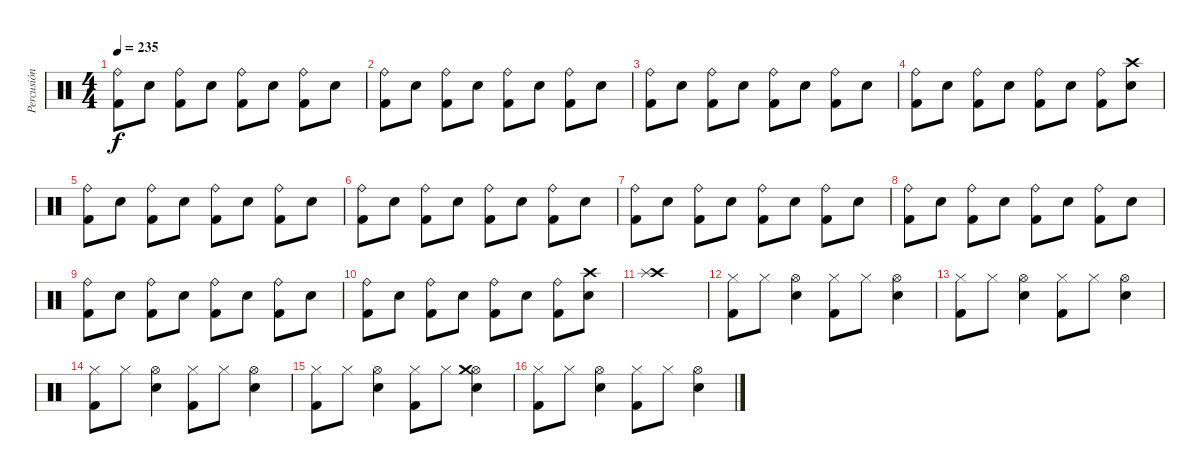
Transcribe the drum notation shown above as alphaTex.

\track ("Percusión" "Percusión") {instrument percussion}
\staff {score}
\articulation defaults
\ts (4 4)
\tempo 235
\clef neutral
\ks c
("Ride (bell)" "Kick (hit) 2").8{dy f} "Electric Snare (hit)".8 ("Ride (bell)" "Kick (hit) 2").8 "Electric Snare (hit)".8 ("Ride (bell)" "Kick (hit) 2").8 "Electric Snare (hit)".8 ("Ride (bell)" "Kick (hit) 2").8 "Electric Snare (hit)".8 |
("Ride (bell)" "Kick (hit) 2").8 "Electric Snare (hit)".8 ("Ride (bell)" "Kick (hit) 2").8 "Electric Snare (hit)".8 ("Ride (bell)" "Kick (hit) 2").8 "Electric Snare (hit)".8 ("Ride (bell)" "Kick (hit) 2").8 "Electric Snare (hit)".8 |
("Ride (bell)" "Kick (hit) 2").8 "Electric Snare (hit)".8 ("Ride (bell)" "Kick (hit) 2").8 "Electric Snare (hit)".8 ("Ride (bell)" "Kick (hit) 2").8 "Electric Snare (hit)".8 ("Ride (bell)" "Kick (hit) 2").8 "Electric Snare (hit)".8 |
("Ride (bell)" "Kick (hit) 2").8 "Electric Snare (hit)".8 ("Ride (bell)" "Kick (hit) 2").8 "Electric Snare (hit)".8 ("Ride (bell)" "Kick (hit) 2").8 "Electric Snare (hit)".8 ("Ride (bell)" "Kick (hit) 2").8 ("Electric Snare (hit)" "Crash high (hit)").8 |
("Ride (bell)" "Kick (hit) 2").8 "Electric Snare (hit)".8 ("Ride (bell)" "Kick (hit) 2").8 "Electric Snare (hit)".8 ("Ride (bell)" "Kick (hit) 2").8 "Electric Snare (hit)".8 ("Ride (bell)" "Kick (hit) 2").8 "Electric Snare (hit)".8 |
("Ride (bell)" "Kick (hit) 2").8 "Electric Snare (hit)".8 ("Ride (bell)" "Kick (hit) 2").8 "Electric Snare (hit)".8 ("Ride (bell)" "Kick (hit) 2").8 "Electric Snare (hit)".8 ("Ride (bell)" "Kick (hit) 2").8 "Electric Snare (hit)".8 |
("Ride (bell)" "Kick (hit) 2").8 "Electric Snare (hit)".8 ("Ride (bell)" "Kick (hit) 2").8 "Electric Snare (hit)".8 ("Ride (bell)" "Kick (hit) 2").8 "Electric Snare (hit)".8 ("Ride (bell)" "Kick (hit) 2").8 "Electric Snare (hit)".8 |
("Ride (bell)" "Kick (hit) 2").8 "Electric Snare (hit)".8 ("Ride (bell)" "Kick (hit) 2").8 "Electric Snare (hit)".8 ("Ride (bell)" "Kick (hit) 2").8 "Electric Snare (hit)".8 ("Ride (bell)" "Kick (hit) 2").8 "Electric Snare (hit)".8 |
("Ride (bell)" "Kick (hit) 2").8 "Electric Snare (hit)".8 ("Ride (bell)" "Kick (hit) 2").8 "Electric Snare (hit)".8 ("Ride (bell)" "Kick (hit) 2").8 "Electric Snare (hit)".8 ("Ride (bell)" "Kick (hit) 2").8 "Electric Snare (hit)".8 |
("Ride (bell)" "Kick (hit) 2").8 "Electric Snare (hit)".8 ("Ride (bell)" "Kick (hit) 2").8 "Electric Snare (hit)".8 ("Ride (bell)" "Kick (hit) 2").8 "Electric Snare (hit)".8 ("Ride (bell)" "Kick (hit) 2").8 ("Electric Snare (hit)" "Crash high (hit)").8 |
("Crash high (hit)" "Splash (hit)").1 |
("Hi-Hat (closed)" "Kick (hit) 2").8 "Hi-Hat (closed)".8 ("Electric Snare (hit)" "Hi-Hat (open)").4 ("Hi-Hat (closed)" "Kick (hit) 2").8 "Hi-Hat (closed)".8 ("Electric Snare (hit)" "Hi-Hat (open)").4 |
("Hi-Hat (closed)" "Kick (hit) 2").8 "Hi-Hat (closed)".8 ("Electric Snare (hit)" "Hi-Hat (open)").4 ("Hi-Hat (closed)" "Kick (hit) 2").8 "Hi-Hat (closed)".8 ("Electric Snare (hit)" "Hi-Hat (open)").4 |
("Hi-Hat (closed)" "Kick (hit) 2").8 "Hi-Hat (closed)".8 ("Electric Snare (hit)" "Hi-Hat (open)").4 ("Hi-Hat (closed)" "Kick (hit) 2").8 "Hi-Hat (closed)".8 ("Electric Snare (hit)" "Hi-Hat (open)").4 |
("Hi-Hat (closed)" "Kick (hit) 2").8 "Hi-Hat (closed)".8 ("Electric Snare (hit)" "Hi-Hat (open)").4 ("Hi-Hat (closed)" "Kick (hit) 2").8 "Hi-Hat (closed)".8 ("Electric Snare (hit)" "Hi-Hat (open)" "Crash medium (hit)").4 |
("Hi-Hat (closed)" "Kick (hit) 2").8 "Hi-Hat (closed)".8 ("Electric Snare (hit)" "Hi-Hat (open)").4 ("Hi-Hat (closed)" "Kick (hit) 2").8 "Hi-Hat (closed)".8 ("Electric Snare (hit)" "Hi-Hat (open)").4
